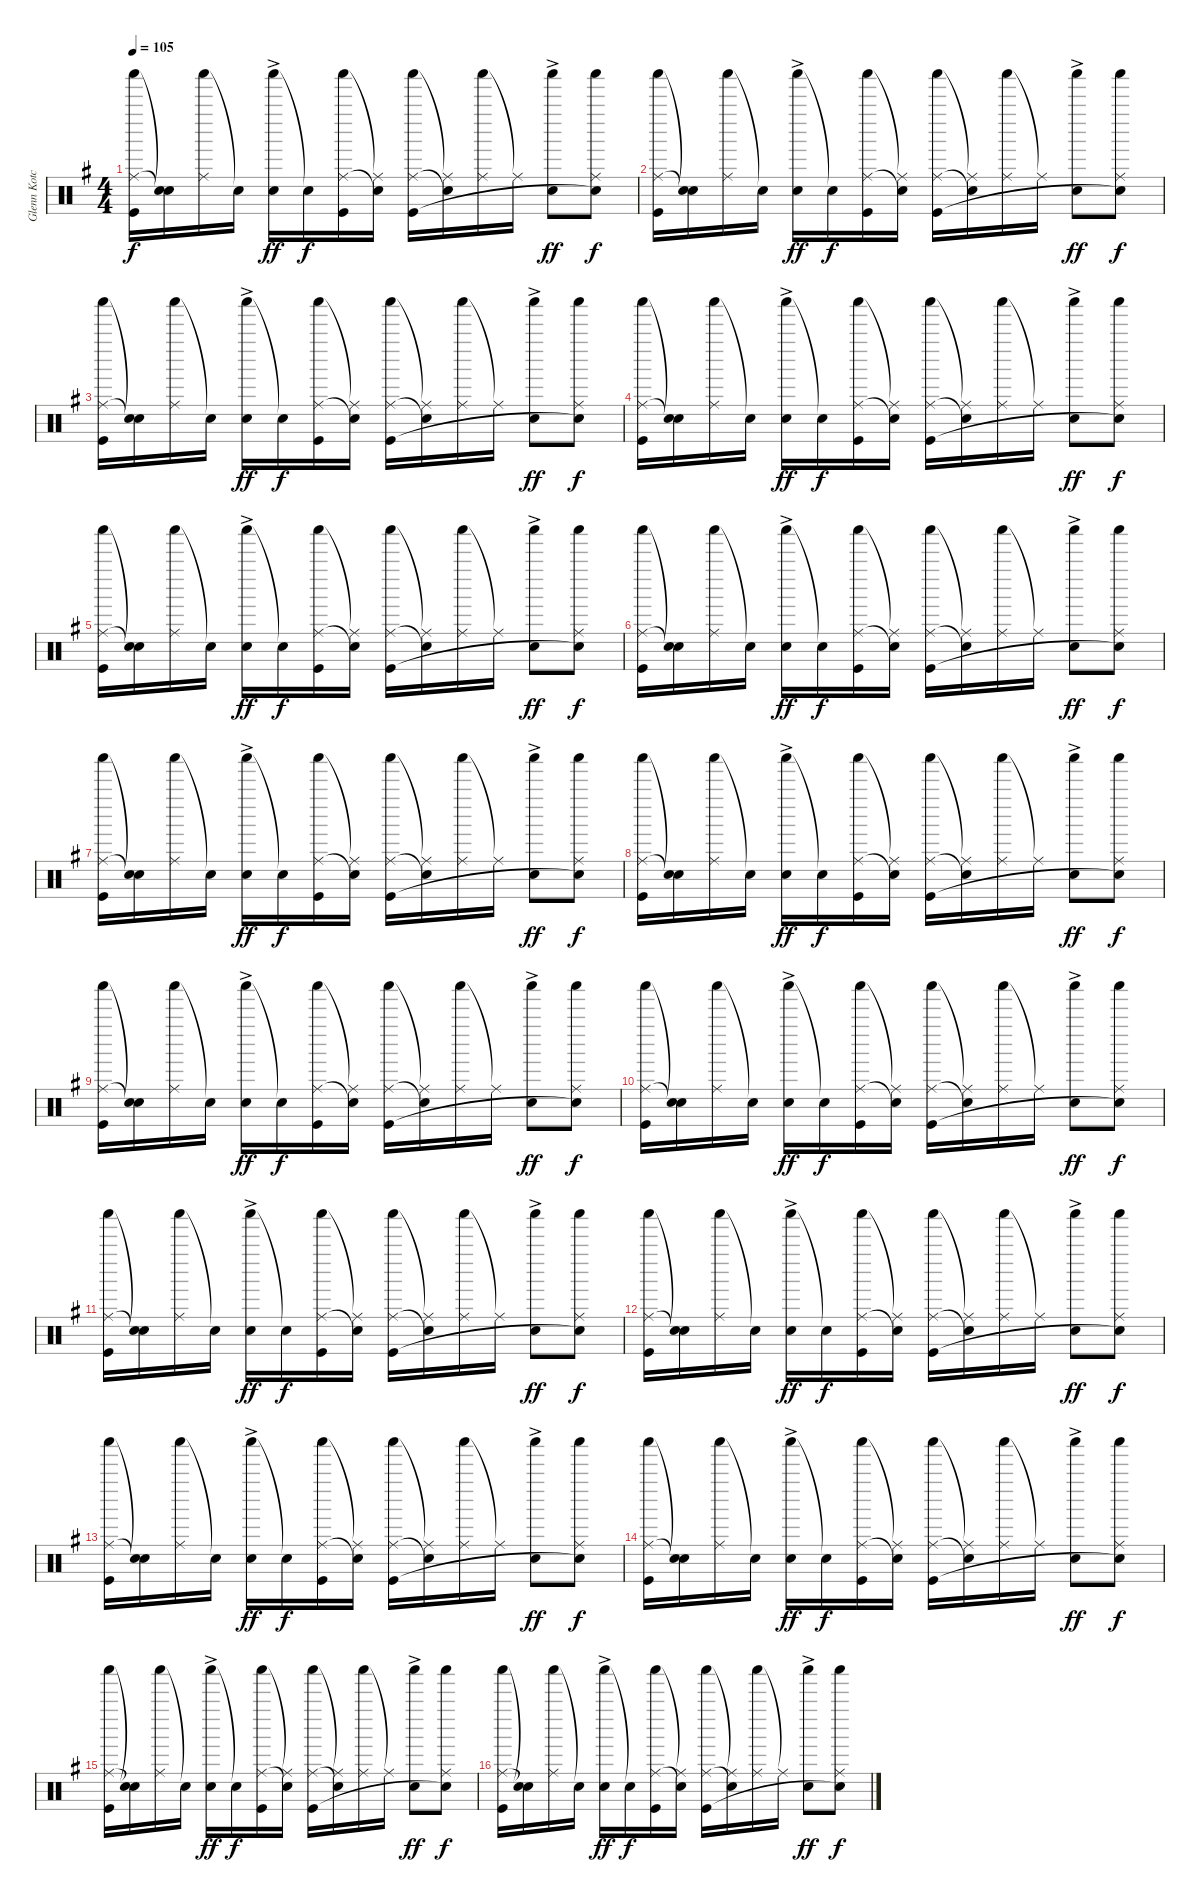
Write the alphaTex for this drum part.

\track ("Glenn Kotche" "Glenn Kotc") {mute instrument percussion}
\staff {score}
\articulation defaults
\ts (4 4)
\tempo 105
\clef neutral
\ks g
("Shaker (hit)" "Ride (middle)" "Kick (hit)").16{dy f} ("Snare (hit)"{t} "Snare (hit)"{t}).16 ("Shaker (hit)" "Ride (middle)").16 "Snare (hit)"{t}.16 ("Shaker (hit)" "Snare (hit) 2"{ac}).16{dy ff} "Snare (hit)"{t}.16{dy f} ("Shaker (hit)" "Ride (middle)" "Kick (hit)").16 ("Ride (middle)"{t} "Snare (hit)"{t}).16 ("Shaker (hit)" "Ride (middle)" "Kick (hit)").16 ("Ride (middle)"{t} "Snare (hit)"{t}).16 ("Shaker (hit)" "Ride (middle)").16 "Ride (middle)"{t}.16 ("Shaker (hit)" "Snare (hit) 2"{ac}).8{dy ff} ("Shaker (hit)" "Ride (middle)" "Snare (hit)"{t}).8{dy f} |
("Shaker (hit)" "Ride (middle)" "Kick (hit)").16 ("Snare (hit)"{t} "Snare (hit)"{t}).16 ("Shaker (hit)" "Ride (middle)").16 "Snare (hit)"{t}.16 ("Shaker (hit)" "Snare (hit) 2"{ac}).16{dy ff} "Snare (hit)"{t}.16{dy f} ("Shaker (hit)" "Ride (middle)" "Kick (hit)").16 ("Ride (middle)"{t} "Snare (hit)"{t}).16 ("Shaker (hit)" "Ride (middle)" "Kick (hit)").16 ("Ride (middle)"{t} "Snare (hit)"{t}).16 ("Shaker (hit)" "Ride (middle)").16 "Ride (middle)"{t}.16 ("Shaker (hit)" "Snare (hit) 2"{ac}).8{dy ff} ("Shaker (hit)" "Ride (middle)" "Snare (hit)"{t}).8{dy f} |
("Shaker (hit)" "Ride (middle)" "Kick (hit)").16 ("Snare (hit)"{t} "Snare (hit)"{t}).16 ("Shaker (hit)" "Ride (middle)").16 "Snare (hit)"{t}.16 ("Shaker (hit)" "Snare (hit) 2"{ac}).16{dy ff} "Snare (hit)"{t}.16{dy f} ("Shaker (hit)" "Ride (middle)" "Kick (hit)").16 ("Ride (middle)"{t} "Snare (hit)"{t}).16 ("Shaker (hit)" "Ride (middle)" "Kick (hit)").16 ("Ride (middle)"{t} "Snare (hit)"{t}).16 ("Shaker (hit)" "Ride (middle)").16 "Ride (middle)"{t}.16 ("Shaker (hit)" "Snare (hit) 2"{ac}).8{dy ff} ("Shaker (hit)" "Ride (middle)" "Snare (hit)"{t}).8{dy f} |
("Shaker (hit)" "Ride (middle)" "Kick (hit)").16 ("Snare (hit)"{t} "Snare (hit)"{t}).16 ("Shaker (hit)" "Ride (middle)").16 "Snare (hit)"{t}.16 ("Shaker (hit)" "Snare (hit) 2"{ac}).16{dy ff} "Snare (hit)"{t}.16{dy f} ("Shaker (hit)" "Ride (middle)" "Kick (hit)").16 ("Ride (middle)"{t} "Snare (hit)"{t}).16 ("Shaker (hit)" "Ride (middle)" "Kick (hit)").16 ("Ride (middle)"{t} "Snare (hit)"{t}).16 ("Shaker (hit)" "Ride (middle)").16 "Ride (middle)"{t}.16 ("Shaker (hit)" "Snare (hit) 2"{ac}).8{dy ff} ("Shaker (hit)" "Ride (middle)" "Snare (hit)"{t}).8{dy f} |
("Shaker (hit)" "Ride (middle)" "Kick (hit)").16 ("Snare (hit)"{t} "Snare (hit)"{t}).16 ("Shaker (hit)" "Ride (middle)").16 "Snare (hit)"{t}.16 ("Shaker (hit)" "Snare (hit) 2"{ac}).16{dy ff} "Snare (hit)"{t}.16{dy f} ("Shaker (hit)" "Ride (middle)" "Kick (hit)").16 ("Ride (middle)"{t} "Snare (hit)"{t}).16 ("Shaker (hit)" "Ride (middle)" "Kick (hit)").16 ("Ride (middle)"{t} "Snare (hit)"{t}).16 ("Shaker (hit)" "Ride (middle)").16 "Ride (middle)"{t}.16 ("Shaker (hit)" "Snare (hit) 2"{ac}).8{dy ff} ("Shaker (hit)" "Ride (middle)" "Snare (hit)"{t}).8{dy f} |
("Shaker (hit)" "Ride (middle)" "Kick (hit)").16 ("Snare (hit)"{t} "Snare (hit)"{t}).16 ("Shaker (hit)" "Ride (middle)").16 "Snare (hit)"{t}.16 ("Shaker (hit)" "Snare (hit) 2"{ac}).16{dy ff} "Snare (hit)"{t}.16{dy f} ("Shaker (hit)" "Ride (middle)" "Kick (hit)").16 ("Ride (middle)"{t} "Snare (hit)"{t}).16 ("Shaker (hit)" "Ride (middle)" "Kick (hit)").16 ("Ride (middle)"{t} "Snare (hit)"{t}).16 ("Shaker (hit)" "Ride (middle)").16 "Ride (middle)"{t}.16 ("Shaker (hit)" "Snare (hit) 2"{ac}).8{dy ff} ("Shaker (hit)" "Ride (middle)" "Snare (hit)"{t}).8{dy f} |
("Shaker (hit)" "Ride (middle)" "Kick (hit)").16 ("Snare (hit)"{t} "Snare (hit)"{t}).16 ("Shaker (hit)" "Ride (middle)").16 "Snare (hit)"{t}.16 ("Shaker (hit)" "Snare (hit) 2"{ac}).16{dy ff} "Snare (hit)"{t}.16{dy f} ("Shaker (hit)" "Ride (middle)" "Kick (hit)").16 ("Ride (middle)"{t} "Snare (hit)"{t}).16 ("Shaker (hit)" "Ride (middle)" "Kick (hit)").16 ("Ride (middle)"{t} "Snare (hit)"{t}).16 ("Shaker (hit)" "Ride (middle)").16 "Ride (middle)"{t}.16 ("Shaker (hit)" "Snare (hit) 2"{ac}).8{dy ff} ("Shaker (hit)" "Ride (middle)" "Snare (hit)"{t}).8{dy f} |
("Shaker (hit)" "Ride (middle)" "Kick (hit)").16 ("Snare (hit)"{t} "Snare (hit)"{t}).16 ("Shaker (hit)" "Ride (middle)").16 "Snare (hit)"{t}.16 ("Shaker (hit)" "Snare (hit) 2"{ac}).16{dy ff} "Snare (hit)"{t}.16{dy f} ("Shaker (hit)" "Ride (middle)" "Kick (hit)").16 ("Ride (middle)"{t} "Snare (hit)"{t}).16 ("Shaker (hit)" "Ride (middle)" "Kick (hit)").16 ("Ride (middle)"{t} "Snare (hit)"{t}).16 ("Shaker (hit)" "Ride (middle)").16 "Ride (middle)"{t}.16 ("Shaker (hit)" "Snare (hit) 2"{ac}).8{dy ff} ("Shaker (hit)" "Ride (middle)" "Snare (hit)"{t}).8{dy f} |
("Shaker (hit)" "Ride (middle)" "Kick (hit)").16 ("Snare (hit)"{t} "Snare (hit)"{t}).16 ("Shaker (hit)" "Ride (middle)").16 "Snare (hit)"{t}.16 ("Shaker (hit)" "Snare (hit) 2"{ac}).16{dy ff} "Snare (hit)"{t}.16{dy f} ("Shaker (hit)" "Ride (middle)" "Kick (hit)").16 ("Ride (middle)"{t} "Snare (hit)"{t}).16 ("Shaker (hit)" "Ride (middle)" "Kick (hit)").16 ("Ride (middle)"{t} "Snare (hit)"{t}).16 ("Shaker (hit)" "Ride (middle)").16 "Ride (middle)"{t}.16 ("Shaker (hit)" "Snare (hit) 2"{ac}).8{dy ff} ("Shaker (hit)" "Ride (middle)" "Snare (hit)"{t}).8{dy f} |
("Shaker (hit)" "Ride (middle)" "Kick (hit)").16 ("Snare (hit)"{t} "Snare (hit)"{t}).16 ("Shaker (hit)" "Ride (middle)").16 "Snare (hit)"{t}.16 ("Shaker (hit)" "Snare (hit) 2"{ac}).16{dy ff} "Snare (hit)"{t}.16{dy f} ("Shaker (hit)" "Ride (middle)" "Kick (hit)").16 ("Ride (middle)"{t} "Snare (hit)"{t}).16 ("Shaker (hit)" "Ride (middle)" "Kick (hit)").16 ("Ride (middle)"{t} "Snare (hit)"{t}).16 ("Shaker (hit)" "Ride (middle)").16 "Ride (middle)"{t}.16 ("Shaker (hit)" "Snare (hit) 2"{ac}).8{dy ff} ("Shaker (hit)" "Ride (middle)" "Snare (hit)"{t}).8{dy f} |
("Shaker (hit)" "Ride (middle)" "Kick (hit)").16 ("Snare (hit)"{t} "Snare (hit)"{t}).16 ("Shaker (hit)" "Ride (middle)").16 "Snare (hit)"{t}.16 ("Shaker (hit)" "Snare (hit) 2"{ac}).16{dy ff} "Snare (hit)"{t}.16{dy f} ("Shaker (hit)" "Ride (middle)" "Kick (hit)").16 ("Ride (middle)"{t} "Snare (hit)"{t}).16 ("Shaker (hit)" "Ride (middle)" "Kick (hit)").16 ("Ride (middle)"{t} "Snare (hit)"{t}).16 ("Shaker (hit)" "Ride (middle)").16 "Ride (middle)"{t}.16 ("Shaker (hit)" "Snare (hit) 2"{ac}).8{dy ff} ("Shaker (hit)" "Ride (middle)" "Snare (hit)"{t}).8{dy f} |
("Shaker (hit)" "Ride (middle)" "Kick (hit)").16 ("Snare (hit)"{t} "Snare (hit)"{t}).16 ("Shaker (hit)" "Ride (middle)").16 "Snare (hit)"{t}.16 ("Shaker (hit)" "Snare (hit) 2"{ac}).16{dy ff} "Snare (hit)"{t}.16{dy f} ("Shaker (hit)" "Ride (middle)" "Kick (hit)").16 ("Ride (middle)"{t} "Snare (hit)"{t}).16 ("Shaker (hit)" "Ride (middle)" "Kick (hit)").16 ("Ride (middle)"{t} "Snare (hit)"{t}).16 ("Shaker (hit)" "Ride (middle)").16 "Ride (middle)"{t}.16 ("Shaker (hit)" "Snare (hit) 2"{ac}).8{dy ff} ("Shaker (hit)" "Ride (middle)" "Snare (hit)"{t}).8{dy f} |
("Shaker (hit)" "Ride (middle)" "Kick (hit)").16 ("Snare (hit)"{t} "Snare (hit)"{t}).16 ("Shaker (hit)" "Ride (middle)").16 "Snare (hit)"{t}.16 ("Shaker (hit)" "Snare (hit) 2"{ac}).16{dy ff} "Snare (hit)"{t}.16{dy f} ("Shaker (hit)" "Ride (middle)" "Kick (hit)").16 ("Ride (middle)"{t} "Snare (hit)"{t}).16 ("Shaker (hit)" "Ride (middle)" "Kick (hit)").16 ("Ride (middle)"{t} "Snare (hit)"{t}).16 ("Shaker (hit)" "Ride (middle)").16 "Ride (middle)"{t}.16 ("Shaker (hit)" "Snare (hit) 2"{ac}).8{dy ff} ("Shaker (hit)" "Ride (middle)" "Snare (hit)"{t}).8{dy f} |
("Shaker (hit)" "Ride (middle)" "Kick (hit)").16 ("Snare (hit)"{t} "Snare (hit)"{t}).16 ("Shaker (hit)" "Ride (middle)").16 "Snare (hit)"{t}.16 ("Shaker (hit)" "Snare (hit) 2"{ac}).16{dy ff} "Snare (hit)"{t}.16{dy f} ("Shaker (hit)" "Ride (middle)" "Kick (hit)").16 ("Ride (middle)"{t} "Snare (hit)"{t}).16 ("Shaker (hit)" "Ride (middle)" "Kick (hit)").16 ("Ride (middle)"{t} "Snare (hit)"{t}).16 ("Shaker (hit)" "Ride (middle)").16 "Ride (middle)"{t}.16 ("Shaker (hit)" "Snare (hit) 2"{ac}).8{dy ff} ("Shaker (hit)" "Ride (middle)" "Snare (hit)"{t}).8{dy f} |
("Shaker (hit)" "Ride (middle)" "Kick (hit)").16 ("Snare (hit)"{t} "Snare (hit)"{t}).16 ("Shaker (hit)" "Ride (middle)").16 "Snare (hit)"{t}.16 ("Shaker (hit)" "Snare (hit) 2"{ac}).16{dy ff} "Snare (hit)"{t}.16{dy f} ("Shaker (hit)" "Ride (middle)" "Kick (hit)").16 ("Ride (middle)"{t} "Snare (hit)"{t}).16 ("Shaker (hit)" "Ride (middle)" "Kick (hit)").16 ("Ride (middle)"{t} "Snare (hit)"{t}).16 ("Shaker (hit)" "Ride (middle)").16 "Ride (middle)"{t}.16 ("Shaker (hit)" "Snare (hit) 2"{ac}).8{dy ff} ("Shaker (hit)" "Ride (middle)" "Snare (hit)"{t}).8{dy f} |
("Shaker (hit)" "Ride (middle)" "Kick (hit)").16 ("Snare (hit)"{t} "Snare (hit)"{t}).16 ("Shaker (hit)" "Ride (middle)").16 "Snare (hit)"{t}.16 ("Shaker (hit)" "Snare (hit) 2"{ac}).16{dy ff} "Snare (hit)"{t}.16{dy f} ("Shaker (hit)" "Ride (middle)" "Kick (hit)").16 ("Ride (middle)"{t} "Snare (hit)"{t}).16 ("Shaker (hit)" "Ride (middle)" "Kick (hit)").16 ("Ride (middle)"{t} "Snare (hit)"{t}).16 ("Shaker (hit)" "Ride (middle)").16 "Ride (middle)"{t}.16 ("Shaker (hit)" "Snare (hit) 2"{ac}).8{dy ff} ("Shaker (hit)" "Ride (middle)" "Snare (hit)"{t}).8{dy f}
